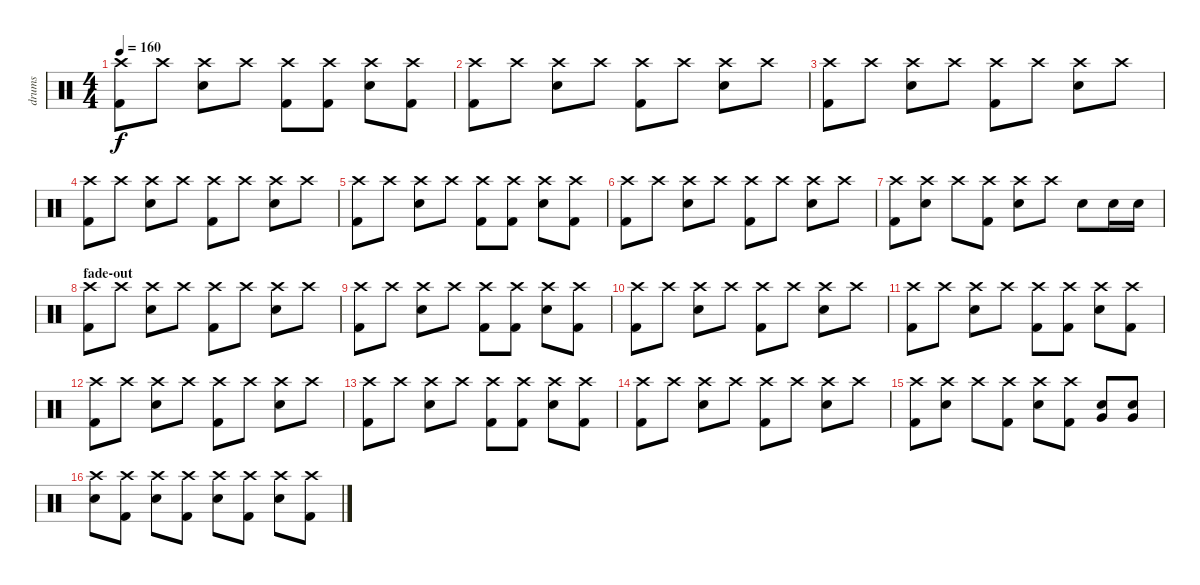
\track ("drums" "drums") {instrument percussion}
\staff {score}
\articulation defaults
\ts (4 4)
\tempo 160
\clef neutral
\ks c
("Crash high (hit)" "Kick (hit) 2").8{dy f} "Crash high (hit)".8 ("Crash high (hit)" "Electric Snare (hit)").8 "Crash high (hit)".8 ("Crash high (hit)" "Kick (hit) 2").8 ("Crash high (hit)" "Kick (hit) 2").8 ("Crash high (hit)" "Electric Snare (hit)").8 ("Crash high (hit)" "Kick (hit) 2").8 |
("Crash high (hit)" "Kick (hit) 2").8 "Crash high (hit)".8 ("Crash high (hit)" "Electric Snare (hit)").8 "Crash high (hit)".8 ("Crash high (hit)" "Kick (hit) 2").8 "Crash high (hit)".8 ("Crash high (hit)" "Electric Snare (hit)").8 "Crash high (hit)".8 |
("Crash high (hit)" "Kick (hit) 2").8 "Crash high (hit)".8 ("Crash high (hit)" "Electric Snare (hit)").8 "Crash high (hit)".8 ("Crash high (hit)" "Kick (hit) 2").8 "Crash high (hit)".8 ("Crash high (hit)" "Electric Snare (hit)").8 "Crash high (hit)".8 |
("Crash high (hit)" "Kick (hit) 2").8 "Crash high (hit)".8 ("Crash high (hit)" "Electric Snare (hit)").8 "Crash high (hit)".8 ("Crash high (hit)" "Kick (hit) 2").8 "Crash high (hit)".8 ("Crash high (hit)" "Electric Snare (hit)").8 "Crash high (hit)".8 |
("Crash high (hit)" "Kick (hit) 2").8 "Crash high (hit)".8 ("Crash high (hit)" "Electric Snare (hit)").8 "Crash high (hit)".8 ("Crash high (hit)" "Kick (hit) 2").8 ("Crash high (hit)" "Kick (hit) 2").8 ("Crash high (hit)" "Electric Snare (hit)").8 ("Crash high (hit)" "Kick (hit) 2").8 |
("Crash high (hit)" "Kick (hit) 2").8 "Crash high (hit)".8 ("Crash high (hit)" "Electric Snare (hit)").8 "Crash high (hit)".8 ("Crash high (hit)" "Kick (hit) 2").8 "Crash high (hit)".8 ("Crash high (hit)" "Electric Snare (hit)").8 "Crash high (hit)".8 |
("Crash high (hit)" "Kick (hit) 2").8 ("Crash high (hit)" "Electric Snare (hit)").8 "Crash high (hit)".8 ("Crash high (hit)" "Kick (hit) 2").8 ("Crash high (hit)" "Electric Snare (hit)").8 "Crash high (hit)".8 "Electric Snare (hit)".8 "Electric Snare (hit)".16 "Electric Snare (hit)".16 |
\section ("" "fade-out")
("Crash high (hit)" "Kick (hit) 2").8 "Crash high (hit)".8 ("Crash high (hit)" "Electric Snare (hit)").8 "Crash high (hit)".8 ("Crash high (hit)" "Kick (hit) 2").8 "Crash high (hit)".8 ("Crash high (hit)" "Electric Snare (hit)").8 "Crash high (hit)".8 |
("Crash high (hit)" "Kick (hit) 2").8 "Crash high (hit)".8 ("Crash high (hit)" "Electric Snare (hit)").8 "Crash high (hit)".8 ("Crash high (hit)" "Kick (hit) 2").8 ("Crash high (hit)" "Kick (hit) 2").8 ("Crash high (hit)" "Electric Snare (hit)").8 ("Crash high (hit)" "Kick (hit) 2").8 |
("Crash high (hit)" "Kick (hit) 2").8 "Crash high (hit)".8 ("Crash high (hit)" "Electric Snare (hit)").8 "Crash high (hit)".8 ("Crash high (hit)" "Kick (hit) 2").8 "Crash high (hit)".8 ("Crash high (hit)" "Electric Snare (hit)").8 "Crash high (hit)".8 |
("Crash high (hit)" "Kick (hit) 2").8 "Crash high (hit)".8 ("Crash high (hit)" "Electric Snare (hit)").8 "Crash high (hit)".8 ("Crash high (hit)" "Kick (hit) 2").8 ("Crash high (hit)" "Kick (hit) 2").8 ("Crash high (hit)" "Electric Snare (hit)").8 ("Crash high (hit)" "Kick (hit) 2").8 |
("Crash high (hit)" "Kick (hit) 2").8 "Crash high (hit)".8 ("Crash high (hit)" "Electric Snare (hit)").8 "Crash high (hit)".8 ("Crash high (hit)" "Kick (hit) 2").8 "Crash high (hit)".8 ("Crash high (hit)" "Electric Snare (hit)").8 "Crash high (hit)".8 |
("Crash high (hit)" "Kick (hit) 2").8 "Crash high (hit)".8 ("Crash high (hit)" "Electric Snare (hit)").8 "Crash high (hit)".8 ("Crash high (hit)" "Kick (hit) 2").8 ("Crash high (hit)" "Kick (hit) 2").8 ("Crash high (hit)" "Electric Snare (hit)").8 ("Crash high (hit)" "Kick (hit) 2").8 |
("Crash high (hit)" "Kick (hit) 2").8 "Crash high (hit)".8 ("Crash high (hit)" "Electric Snare (hit)").8 "Crash high (hit)".8 ("Crash high (hit)" "Kick (hit) 2").8 "Crash high (hit)".8 ("Crash high (hit)" "Electric Snare (hit)").8 "Crash high (hit)".8 |
("Crash high (hit)" "Kick (hit) 2").8 ("Crash high (hit)" "Electric Snare (hit)").8 "Crash high (hit)".8 ("Crash high (hit)" "Kick (hit) 2").8 ("Crash high (hit)" "Electric Snare (hit)").8 ("Crash high (hit)" "Kick (hit) 2").8 ("Very Low Tom (hit)" "Electric Snare (hit)").8 ("Very Low Tom (hit)" "Electric Snare (hit)").8 |
("Crash high (hit)" "Electric Snare (hit)").8 ("Crash high (hit)" "Kick (hit) 2").8 ("Crash high (hit)" "Electric Snare (hit)").8 ("Crash high (hit)" "Kick (hit) 2").8 ("Crash high (hit)" "Electric Snare (hit)").8 ("Crash high (hit)" "Kick (hit) 2").8 ("Crash high (hit)" "Electric Snare (hit)").8 ("Crash high (hit)" "Kick (hit) 2").8
